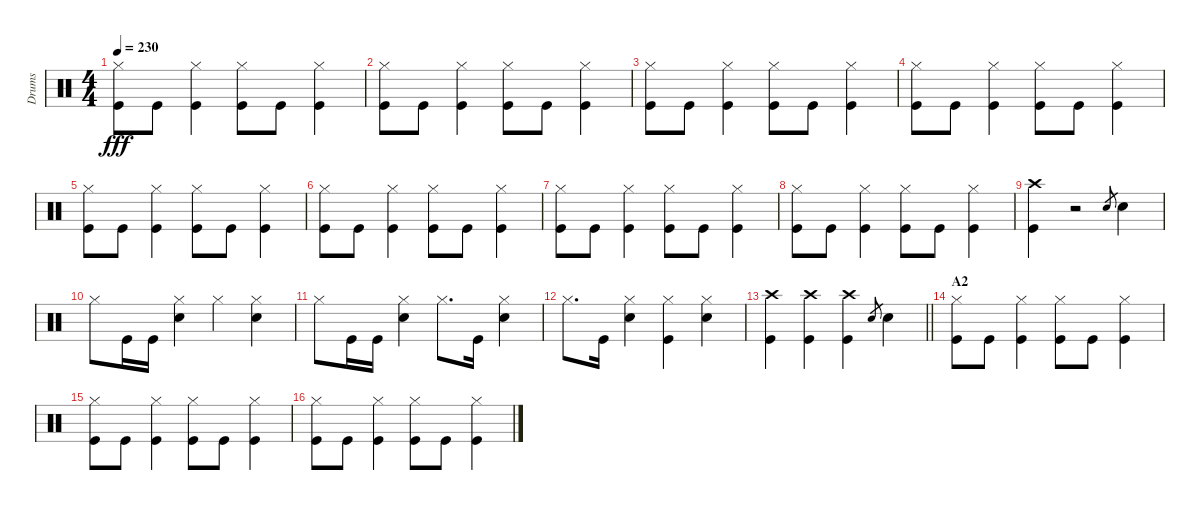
\track ("Drums" "Drums") {instrument percussion}
\staff {score}
\articulation defaults
\ts (4 4)
\tempo 230
\clef neutral
\ks c
("Hi-Hat (closed)" "Kick (hit)").8{dy fff} "Kick (hit)".8 ("Hi-Hat (closed)" "Kick (hit)").4 ("Hi-Hat (closed)" "Kick (hit)").8 "Kick (hit)".8 ("Hi-Hat (closed)" "Kick (hit)").4 |
("Hi-Hat (closed)" "Kick (hit)").8 "Kick (hit)".8 ("Hi-Hat (closed)" "Kick (hit)").4 ("Hi-Hat (closed)" "Kick (hit)").8 "Kick (hit)".8 ("Hi-Hat (closed)" "Kick (hit)").4 |
("Hi-Hat (closed)" "Kick (hit)").8 "Kick (hit)".8 ("Hi-Hat (closed)" "Kick (hit)").4 ("Hi-Hat (closed)" "Kick (hit)").8 "Kick (hit)".8 ("Hi-Hat (closed)" "Kick (hit)").4 |
("Hi-Hat (closed)" "Kick (hit)").8 "Kick (hit)".8 ("Hi-Hat (closed)" "Kick (hit)").4 ("Hi-Hat (closed)" "Kick (hit)").8 "Kick (hit)".8 ("Hi-Hat (closed)" "Kick (hit)").4 |
("Hi-Hat (closed)" "Kick (hit)").8 "Kick (hit)".8 ("Hi-Hat (closed)" "Kick (hit)").4 ("Hi-Hat (closed)" "Kick (hit)").8 "Kick (hit)".8 ("Hi-Hat (closed)" "Kick (hit)").4 |
("Hi-Hat (closed)" "Kick (hit)").8 "Kick (hit)".8 ("Hi-Hat (closed)" "Kick (hit)").4 ("Hi-Hat (closed)" "Kick (hit)").8 "Kick (hit)".8 ("Hi-Hat (closed)" "Kick (hit)").4 |
("Hi-Hat (closed)" "Kick (hit)").8 "Kick (hit)".8 ("Hi-Hat (closed)" "Kick (hit)").4 ("Hi-Hat (closed)" "Kick (hit)").8 "Kick (hit)".8 ("Hi-Hat (closed)" "Kick (hit)").4 |
("Hi-Hat (closed)" "Kick (hit)").8 "Kick (hit)".8 ("Hi-Hat (closed)" "Kick (hit)").4 ("Hi-Hat (closed)" "Kick (hit)").8 "Kick (hit)".8 ("Hi-Hat (closed)" "Kick (hit)").4 |
("Crash high (hit)" "Kick (hit)").4 r.2 "Snare (hit) 2".8{gr} "Snare (hit) 2".4 |
"Hi-Hat (closed)".8 "Kick (hit)".16 "Kick (hit)".16 ("Hi-Hat (closed)" "Snare (hit) 2").4 "Hi-Hat (closed)".4 ("Hi-Hat (closed)" "Snare (hit) 2").4 |
"Hi-Hat (closed)".8 "Kick (hit)".16 "Kick (hit)".16 ("Hi-Hat (closed)" "Snare (hit) 2").4 "Hi-Hat (closed)".8{d} "Kick (hit)".16 ("Hi-Hat (closed)" "Snare (hit) 2").4 |
"Hi-Hat (closed)".8{d} "Kick (hit)".16 ("Hi-Hat (closed)" "Snare (hit) 2").4 ("Hi-Hat (closed)" "Kick (hit)").4 ("Hi-Hat (closed)" "Snare (hit) 2").4 |
\barLineRight lightlight
("Crash high (hit)" "Kick (hit)").4 ("Crash high (hit)" "Kick (hit)").4 ("Crash high (hit)" "Kick (hit)").4 "Snare (hit) 2".8{gr} "Snare (hit) 2".4 |
\section ("" "A2")
("Hi-Hat (closed)" "Kick (hit)").8 "Kick (hit)".8 ("Hi-Hat (closed)" "Kick (hit)").4 ("Hi-Hat (closed)" "Kick (hit)").8 "Kick (hit)".8 ("Hi-Hat (closed)" "Kick (hit)").4 |
("Hi-Hat (closed)" "Kick (hit)").8 "Kick (hit)".8 ("Hi-Hat (closed)" "Kick (hit)").4 ("Hi-Hat (closed)" "Kick (hit)").8 "Kick (hit)".8 ("Hi-Hat (closed)" "Kick (hit)").4 |
("Hi-Hat (closed)" "Kick (hit)").8 "Kick (hit)".8 ("Hi-Hat (closed)" "Kick (hit)").4 ("Hi-Hat (closed)" "Kick (hit)").8 "Kick (hit)".8 ("Hi-Hat (closed)" "Kick (hit)").4
